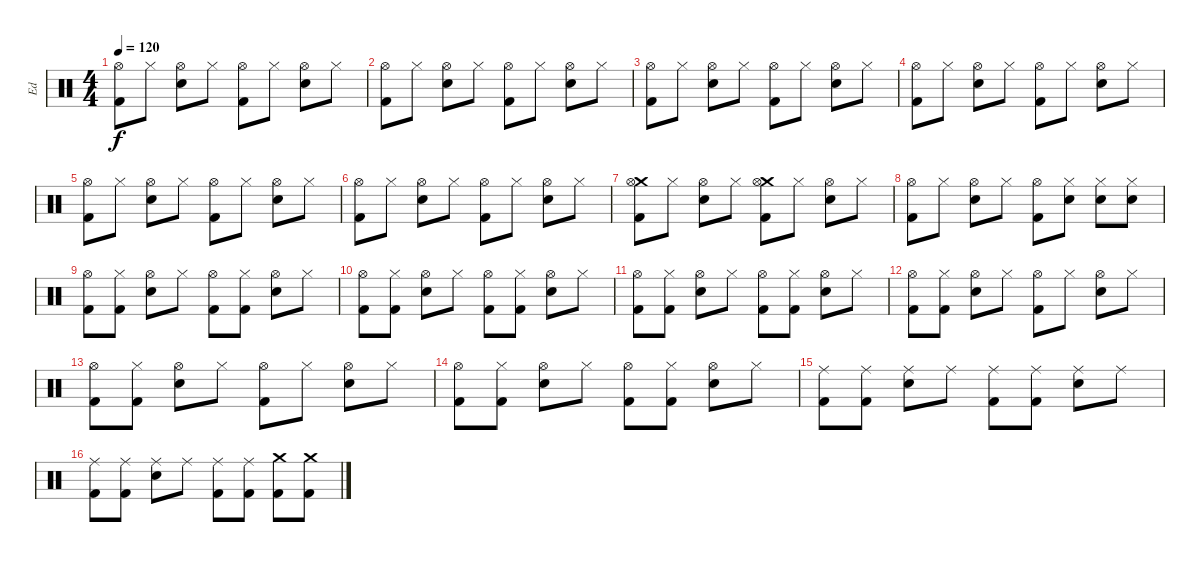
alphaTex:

\track ("Ed" "Ed") {instrument percussion}
\staff {score}
\articulation defaults
\ts (4 4)
\tempo 120
\clef neutral
\ks c
("Hi-Hat (open)" "Kick (hit) 2").8{dy f} "Hi-Hat (closed)".8 ("Hi-Hat (open)" "Snare (hit) 2").8 "Hi-Hat (closed)".8 ("Hi-Hat (open)" "Kick (hit) 2").8 "Hi-Hat (closed)".8 ("Hi-Hat (open)" "Snare (hit) 2").8 "Hi-Hat (closed)".8 |
("Hi-Hat (open)" "Kick (hit) 2").8 "Hi-Hat (closed)".8 ("Hi-Hat (open)" "Snare (hit) 2").8 "Hi-Hat (closed)".8 ("Hi-Hat (open)" "Kick (hit) 2").8 "Hi-Hat (closed)".8 ("Hi-Hat (open)" "Snare (hit) 2").8 "Hi-Hat (closed)".8 |
("Hi-Hat (open)" "Kick (hit) 2").8 "Hi-Hat (closed)".8 ("Hi-Hat (open)" "Snare (hit) 2").8 "Hi-Hat (closed)".8 ("Hi-Hat (open)" "Kick (hit) 2").8 "Hi-Hat (closed)".8 ("Hi-Hat (open)" "Snare (hit) 2").8 "Hi-Hat (closed)".8 |
("Hi-Hat (open)" "Kick (hit) 2").8 "Hi-Hat (closed)".8 ("Hi-Hat (open)" "Snare (hit) 2").8 "Hi-Hat (closed)".8 ("Hi-Hat (open)" "Kick (hit) 2").8 "Hi-Hat (closed)".8 ("Hi-Hat (open)" "Snare (hit) 2").8 "Hi-Hat (closed)".8 |
("Hi-Hat (open)" "Kick (hit) 2").8 "Hi-Hat (closed)".8 ("Hi-Hat (open)" "Snare (hit) 2").8 "Hi-Hat (closed)".8 ("Hi-Hat (open)" "Kick (hit) 2").8 "Hi-Hat (closed)".8 ("Hi-Hat (open)" "Snare (hit) 2").8 "Hi-Hat (closed)".8 |
("Hi-Hat (open)" "Kick (hit) 2").8 "Hi-Hat (closed)".8 ("Hi-Hat (open)" "Snare (hit) 2").8 "Hi-Hat (closed)".8 ("Hi-Hat (open)" "Kick (hit) 2").8 "Hi-Hat (closed)".8 ("Hi-Hat (open)" "Snare (hit) 2").8 "Hi-Hat (closed)".8 |
("Crash medium (hit)" "Hi-Hat (open)" "Kick (hit) 2").8 "Hi-Hat (closed)".8 ("Hi-Hat (open)" "Snare (hit) 2").8 "Hi-Hat (closed)".8 ("Crash medium (hit)" "Hi-Hat (open)" "Kick (hit) 2").8 "Hi-Hat (closed)".8 ("Hi-Hat (open)" "Snare (hit) 2").8 "Hi-Hat (closed)".8 |
("Hi-Hat (open)" "Kick (hit) 2").8 "Hi-Hat (closed)".8 ("Hi-Hat (open)" "Snare (hit) 2").8 "Hi-Hat (closed)".8 ("Hi-Hat (open)" "Kick (hit) 2").8 ("Hi-Hat (closed)" "Snare (hit) 2").8 ("Hi-Hat (closed)" "Snare (hit) 2").8 ("Hi-Hat (closed)" "Snare (hit) 2").8 |
("Hi-Hat (open)" "Kick (hit) 2").8 ("Hi-Hat (closed)" "Kick (hit) 2").8 ("Hi-Hat (open)" "Snare (hit) 2").8 "Hi-Hat (closed)".8 ("Hi-Hat (open)" "Kick (hit) 2").8 ("Hi-Hat (closed)" "Kick (hit) 2").8 ("Hi-Hat (open)" "Snare (hit) 2").8 "Hi-Hat (closed)".8 |
("Hi-Hat (open)" "Kick (hit) 2").8 ("Hi-Hat (closed)" "Kick (hit) 2").8 ("Hi-Hat (open)" "Snare (hit) 2").8 "Hi-Hat (closed)".8 ("Hi-Hat (open)" "Kick (hit) 2").8 ("Hi-Hat (closed)" "Kick (hit) 2").8 ("Hi-Hat (open)" "Snare (hit) 2").8 "Hi-Hat (closed)".8 |
("Hi-Hat (open)" "Kick (hit) 2").8 ("Hi-Hat (closed)" "Kick (hit) 2").8 ("Hi-Hat (open)" "Snare (hit) 2").8 "Hi-Hat (closed)".8 ("Hi-Hat (open)" "Kick (hit) 2").8 ("Hi-Hat (closed)" "Kick (hit) 2").8 ("Hi-Hat (open)" "Snare (hit) 2").8 "Hi-Hat (closed)".8 |
("Hi-Hat (open)" "Kick (hit) 2").8 ("Hi-Hat (closed)" "Kick (hit) 2").8 ("Hi-Hat (open)" "Snare (hit) 2").8 "Hi-Hat (closed)".8 ("Hi-Hat (open)" "Kick (hit) 2").8 "Hi-Hat (closed)".8 ("Hi-Hat (open)" "Snare (hit) 2").8 "Hi-Hat (closed)".8 |
("Hi-Hat (open)" "Kick (hit) 2").8 ("Hi-Hat (closed)" "Kick (hit) 2").8 ("Hi-Hat (open)" "Snare (hit) 2").8 "Hi-Hat (closed)".8 ("Hi-Hat (open)" "Kick (hit) 2").8 "Hi-Hat (closed)".8 ("Hi-Hat (open)" "Snare (hit) 2").8 "Hi-Hat (closed)".8 |
("Hi-Hat (open)" "Kick (hit) 2").8 ("Hi-Hat (closed)" "Kick (hit) 2").8 ("Hi-Hat (open)" "Snare (hit) 2").8 "Hi-Hat (closed)".8 ("Hi-Hat (open)" "Kick (hit) 2").8 ("Hi-Hat (closed)" "Kick (hit) 2").8 ("Hi-Hat (open)" "Snare (hit) 2").8 "Hi-Hat (closed)".8 |
("Ride (middle)" "Kick (hit) 2").8 ("Ride (middle)" "Kick (hit) 2").8 ("Ride (middle)" "Snare (hit) 2").8 "Ride (middle)".8 ("Ride (middle)" "Kick (hit) 2").8 ("Ride (middle)" "Kick (hit) 2").8 ("Ride (middle)" "Snare (hit) 2").8 "Ride (middle)".8 |
("Ride (middle)" "Kick (hit) 2").8 ("Ride (middle)" "Kick (hit) 2").8 ("Ride (middle)" "Snare (hit) 2").8 "Ride (middle)".8 ("Ride (middle)" "Kick (hit) 2").8 ("Ride (middle)" "Kick (hit) 2").8 ("Crash medium (hit)" "Kick (hit) 2").8 ("Crash medium (hit)" "Kick (hit) 2").8
